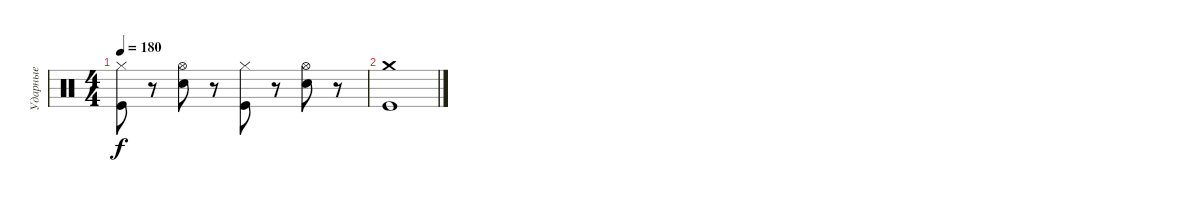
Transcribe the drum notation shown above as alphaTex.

\track ("Ударные" "Ударные") {instrument percussion}
\staff {score}
\articulation defaults
\ts (4 4)
\tempo 180
\clef neutral
\ks c
("Hi-Hat (closed)" "Kick (hit)").8{dy f} r.8 ("Hi-Hat (open)" "Electric Snare (hit)").8 r.8 ("Hi-Hat (closed)" "Kick (hit)").8 r.8 ("Hi-Hat (open)" "Electric Snare (hit)").8 r.8 |
("Crash medium (hit)" "Kick (hit)").1
